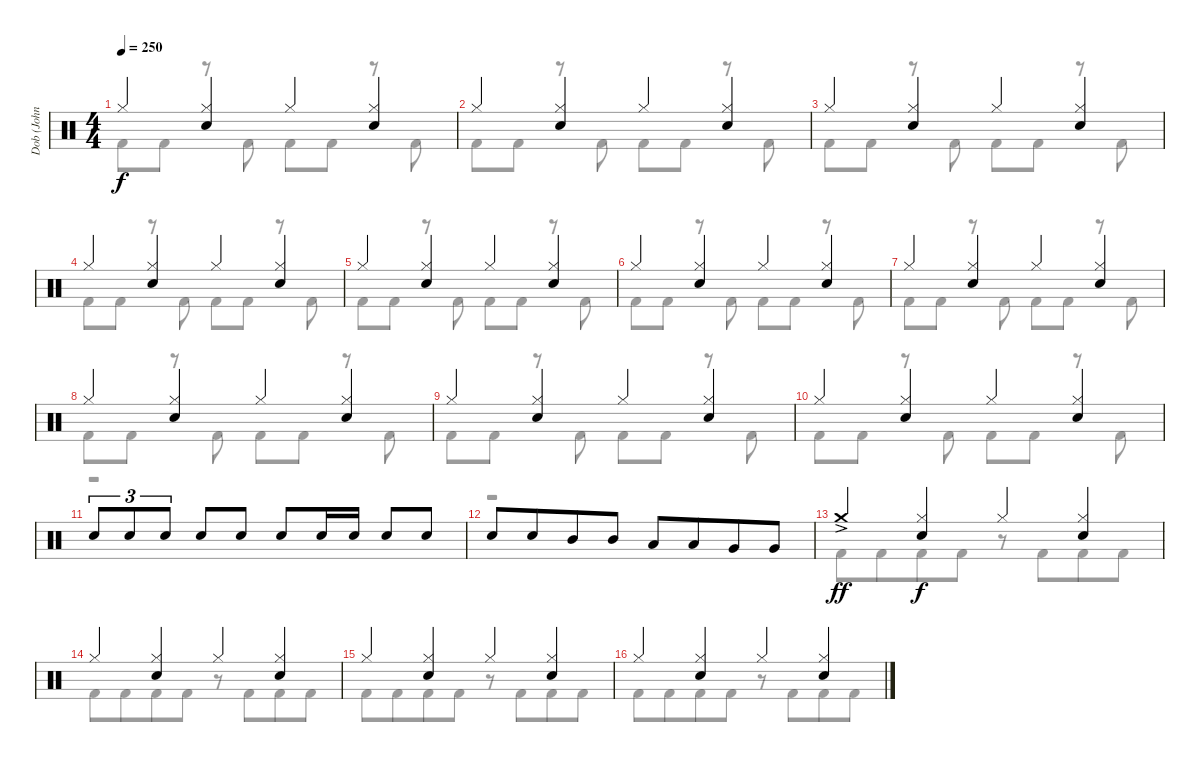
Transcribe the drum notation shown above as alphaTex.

\track ("Dob (John Macaluso)" "Dob (John ") {instrument percussion}
\staff {score}
\articulation defaults
\voice
\ts (4 4)
\tempo 250
\clef neutral
\ks c "Hi-Hat (closed)".4{dy f}
("Hi-Hat (closed)" "Electric Snare (hit)").4 "Hi-Hat (closed)".4 ("Hi-Hat (closed)" "Electric Snare (hit)").4 |
"Hi-Hat (closed)".4 ("Hi-Hat (closed)" "Electric Snare (hit)").4 "Hi-Hat (closed)".4 ("Hi-Hat (closed)" "Electric Snare (hit)").4 |
"Hi-Hat (closed)".4 ("Hi-Hat (closed)" "Electric Snare (hit)").4 "Hi-Hat (closed)".4 ("Hi-Hat (closed)" "Electric Snare (hit)").4 |
"Hi-Hat (closed)".4 ("Hi-Hat (closed)" "Electric Snare (hit)").4 "Hi-Hat (closed)".4 ("Hi-Hat (closed)" "Electric Snare (hit)").4 |
"Hi-Hat (closed)".4 ("Hi-Hat (closed)" "Electric Snare (hit)").4 "Hi-Hat (closed)".4 ("Hi-Hat (closed)" "Electric Snare (hit)").4 |
"Hi-Hat (closed)".4 ("Hi-Hat (closed)" "Electric Snare (hit)").4 "Hi-Hat (closed)".4 ("Hi-Hat (closed)" "Electric Snare (hit)").4 |
"Hi-Hat (closed)".4 ("Hi-Hat (closed)" "Electric Snare (hit)").4 "Hi-Hat (closed)".4 ("Hi-Hat (closed)" "Electric Snare (hit)").4 |
"Hi-Hat (closed)".4 ("Hi-Hat (closed)" "Electric Snare (hit)").4 "Hi-Hat (closed)".4 ("Hi-Hat (closed)" "Electric Snare (hit)").4 |
"Hi-Hat (closed)".4 ("Hi-Hat (closed)" "Electric Snare (hit)").4 "Hi-Hat (closed)".4 ("Hi-Hat (closed)" "Electric Snare (hit)").4 |
"Hi-Hat (closed)".4 ("Hi-Hat (closed)" "Electric Snare (hit)").4 "Hi-Hat (closed)".4 ("Hi-Hat (closed)" "Electric Snare (hit)").4 |
"Electric Snare (hit)".8{tu (3 2)} "Electric Snare (hit)".8{tu (3 2)} "Electric Snare (hit)".8{tu (3 2)} "Electric Snare (hit)".8 "Electric Snare (hit)".8 "Electric Snare (hit)".8 "Electric Snare (hit)".16 "Electric Snare (hit)".16 "Electric Snare (hit)".8 "Electric Snare (hit)".8 |
"Electric Snare (hit)".8 "Electric Snare (hit)".8{beam merge} "Mid Tom (hit)".8 "Mid Tom (hit)".8 "Low Tom (hit)".8 "Low Tom (hit)".8{beam merge} "Very Low Tom (hit)".8 "Very Low Tom (hit)".8 |
"Crash medium (hit)"{ac}.4{dy ff} ("Hi-Hat (closed)" "Electric Snare (hit)").4{dy f} "Hi-Hat (closed)".4 ("Hi-Hat (closed)" "Electric Snare (hit)").4 |
"Hi-Hat (closed)".4 ("Hi-Hat (closed)" "Electric Snare (hit)").4 "Hi-Hat (closed)".4 ("Hi-Hat (closed)" "Electric Snare (hit)").4 |
"Hi-Hat (closed)".4 ("Hi-Hat (closed)" "Electric Snare (hit)").4 "Hi-Hat (closed)".4 ("Hi-Hat (closed)" "Electric Snare (hit)").4 |
"Hi-Hat (closed)".4 ("Hi-Hat (closed)" "Electric Snare (hit)").4 "Hi-Hat (closed)".4 ("Hi-Hat (closed)" "Electric Snare (hit)").4
\voice
\clef neutral
\ottava regular
\simile none
\ks c "Kick (hit) 2".8{dy f} "Kick (hit) 2".8
r.8 "Kick (hit) 2".8 "Kick (hit) 2".8 "Kick (hit) 2".8 r.8 "Kick (hit) 2".8 |
"Kick (hit) 2".8 "Kick (hit) 2".8 r.8 "Kick (hit) 2".8 "Kick (hit) 2".8 "Kick (hit) 2".8 r.8 "Kick (hit) 2".8 |
"Kick (hit) 2".8 "Kick (hit) 2".8 r.8 "Kick (hit) 2".8 "Kick (hit) 2".8 "Kick (hit) 2".8 r.8 "Kick (hit) 2".8 |
"Kick (hit) 2".8 "Kick (hit) 2".8 r.8 "Kick (hit) 2".8 "Kick (hit) 2".8 "Kick (hit) 2".8 r.8 "Kick (hit) 2".8 |
"Kick (hit) 2".8 "Kick (hit) 2".8 r.8 "Kick (hit) 2".8 "Kick (hit) 2".8 "Kick (hit) 2".8 r.8 "Kick (hit) 2".8 |
"Kick (hit) 2".8 "Kick (hit) 2".8 r.8 "Kick (hit) 2".8 "Kick (hit) 2".8 "Kick (hit) 2".8 r.8 "Kick (hit) 2".8 |
"Kick (hit) 2".8 "Kick (hit) 2".8 r.8 "Kick (hit) 2".8 "Kick (hit) 2".8 "Kick (hit) 2".8 r.8 "Kick (hit) 2".8 |
"Kick (hit) 2".8 "Kick (hit) 2".8 r.8 "Kick (hit) 2".8 "Kick (hit) 2".8 "Kick (hit) 2".8 r.8 "Kick (hit) 2".8 |
"Kick (hit) 2".8 "Kick (hit) 2".8 r.8 "Kick (hit) 2".8 "Kick (hit) 2".8 "Kick (hit) 2".8 r.8 "Kick (hit) 2".8 |
"Kick (hit) 2".8 "Kick (hit) 2".8 r.8 "Kick (hit) 2".8 "Kick (hit) 2".8 "Kick (hit) 2".8 r.8 "Kick (hit) 2".8 |
r.1 |
r.1 |
"Kick (hit) 2".8 "Kick (hit) 2".8{beam merge} "Kick (hit) 2".8 "Kick (hit) 2".8 r.8 "Kick (hit) 2".8{beam merge} "Kick (hit) 2".8 "Kick (hit) 2".8 |
"Kick (hit) 2".8 "Kick (hit) 2".8{beam merge} "Kick (hit) 2".8 "Kick (hit) 2".8 r.8 "Kick (hit) 2".8{beam merge} "Kick (hit) 2".8 "Kick (hit) 2".8 |
"Kick (hit) 2".8 "Kick (hit) 2".8{beam merge} "Kick (hit) 2".8 "Kick (hit) 2".8 r.8 "Kick (hit) 2".8{beam merge} "Kick (hit) 2".8 "Kick (hit) 2".8 |
"Kick (hit) 2".8 "Kick (hit) 2".8{beam merge} "Kick (hit) 2".8 "Kick (hit) 2".8 r.8 "Kick (hit) 2".8{beam merge} "Kick (hit) 2".8 "Kick (hit) 2".8
